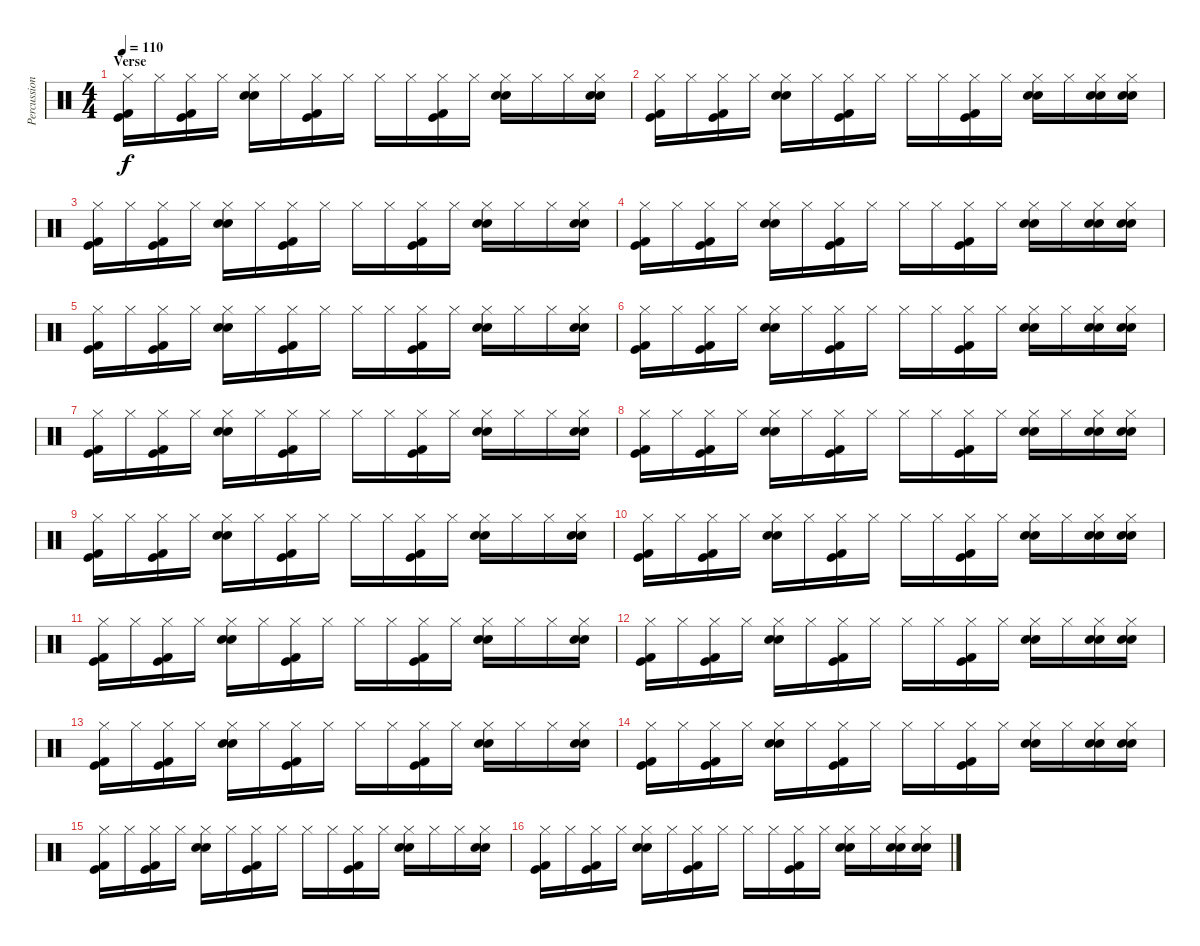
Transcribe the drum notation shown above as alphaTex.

\track ("Percussion" "Percussion") {instrument percussion}
\staff {score}
\articulation defaults
\ts (4 4)
\section ("" "Verse")
\tempo 110
\clef neutral
\ks c
("Hi-Hat (closed)" "Kick (hit) 2" "Kick (hit)").16{dy f} "Hi-Hat (closed)".16 ("Hi-Hat (closed)" "Kick (hit) 2" "Kick (hit)").16 "Hi-Hat (closed)".16 ("Hi-Hat (closed)" "Electric Snare (hit)" "Snare (hit) 2").16 "Hi-Hat (closed)".16 ("Hi-Hat (closed)" "Kick (hit) 2" "Kick (hit)").16 "Hi-Hat (closed)".16 "Hi-Hat (closed)".16 "Hi-Hat (closed)".16 ("Hi-Hat (closed)" "Kick (hit) 2" "Kick (hit)").16 "Hi-Hat (closed)".16 ("Hi-Hat (closed)" "Electric Snare (hit)" "Snare (hit) 2").16 "Hi-Hat (closed)".16 "Hi-Hat (closed)".16 ("Hi-Hat (closed)" "Electric Snare (hit)" "Snare (hit) 2").16 |
("Hi-Hat (closed)" "Kick (hit) 2" "Kick (hit)").16 "Hi-Hat (closed)".16 ("Hi-Hat (closed)" "Kick (hit) 2" "Kick (hit)").16 "Hi-Hat (closed)".16 ("Hi-Hat (closed)" "Electric Snare (hit)" "Snare (hit) 2").16 "Hi-Hat (closed)".16 ("Hi-Hat (closed)" "Kick (hit) 2" "Kick (hit)").16 "Hi-Hat (closed)".16 "Hi-Hat (closed)".16 "Hi-Hat (closed)".16 ("Hi-Hat (closed)" "Kick (hit) 2" "Kick (hit)").16 "Hi-Hat (closed)".16 ("Hi-Hat (closed)" "Electric Snare (hit)" "Snare (hit) 2").16 "Hi-Hat (closed)".16 ("Hi-Hat (closed)" "Electric Snare (hit)" "Snare (hit) 2").16 ("Hi-Hat (closed)" "Electric Snare (hit)" "Snare (hit) 2").16 |
("Hi-Hat (closed)" "Kick (hit) 2" "Kick (hit)").16 "Hi-Hat (closed)".16 ("Hi-Hat (closed)" "Kick (hit) 2" "Kick (hit)").16 "Hi-Hat (closed)".16 ("Hi-Hat (closed)" "Electric Snare (hit)" "Snare (hit) 2").16 "Hi-Hat (closed)".16 ("Hi-Hat (closed)" "Kick (hit) 2" "Kick (hit)").16 "Hi-Hat (closed)".16 "Hi-Hat (closed)".16 "Hi-Hat (closed)".16 ("Hi-Hat (closed)" "Kick (hit) 2" "Kick (hit)").16 "Hi-Hat (closed)".16 ("Hi-Hat (closed)" "Electric Snare (hit)" "Snare (hit) 2").16 "Hi-Hat (closed)".16 "Hi-Hat (closed)".16 ("Hi-Hat (closed)" "Electric Snare (hit)" "Snare (hit) 2").16 |
("Hi-Hat (closed)" "Kick (hit) 2" "Kick (hit)").16 "Hi-Hat (closed)".16 ("Hi-Hat (closed)" "Kick (hit) 2" "Kick (hit)").16 "Hi-Hat (closed)".16 ("Hi-Hat (closed)" "Electric Snare (hit)" "Snare (hit) 2").16 "Hi-Hat (closed)".16 ("Hi-Hat (closed)" "Kick (hit) 2" "Kick (hit)").16 "Hi-Hat (closed)".16 "Hi-Hat (closed)".16 "Hi-Hat (closed)".16 ("Hi-Hat (closed)" "Kick (hit) 2" "Kick (hit)").16 "Hi-Hat (closed)".16 ("Hi-Hat (closed)" "Electric Snare (hit)" "Snare (hit) 2").16 "Hi-Hat (closed)".16 ("Hi-Hat (closed)" "Electric Snare (hit)" "Snare (hit) 2").16 ("Hi-Hat (closed)" "Electric Snare (hit)" "Snare (hit) 2").16 |
("Hi-Hat (closed)" "Kick (hit) 2" "Kick (hit)").16 "Hi-Hat (closed)".16 ("Hi-Hat (closed)" "Kick (hit) 2" "Kick (hit)").16 "Hi-Hat (closed)".16 ("Hi-Hat (closed)" "Electric Snare (hit)" "Snare (hit) 2").16 "Hi-Hat (closed)".16 ("Hi-Hat (closed)" "Kick (hit) 2" "Kick (hit)").16 "Hi-Hat (closed)".16 "Hi-Hat (closed)".16 "Hi-Hat (closed)".16 ("Hi-Hat (closed)" "Kick (hit) 2" "Kick (hit)").16 "Hi-Hat (closed)".16 ("Hi-Hat (closed)" "Electric Snare (hit)" "Snare (hit) 2").16 "Hi-Hat (closed)".16 "Hi-Hat (closed)".16 ("Hi-Hat (closed)" "Electric Snare (hit)" "Snare (hit) 2").16 |
("Hi-Hat (closed)" "Kick (hit) 2" "Kick (hit)").16 "Hi-Hat (closed)".16 ("Hi-Hat (closed)" "Kick (hit) 2" "Kick (hit)").16 "Hi-Hat (closed)".16 ("Hi-Hat (closed)" "Electric Snare (hit)" "Snare (hit) 2").16 "Hi-Hat (closed)".16 ("Hi-Hat (closed)" "Kick (hit) 2" "Kick (hit)").16 "Hi-Hat (closed)".16 "Hi-Hat (closed)".16 "Hi-Hat (closed)".16 ("Hi-Hat (closed)" "Kick (hit) 2" "Kick (hit)").16 "Hi-Hat (closed)".16 ("Hi-Hat (closed)" "Electric Snare (hit)" "Snare (hit) 2").16 "Hi-Hat (closed)".16 ("Hi-Hat (closed)" "Electric Snare (hit)" "Snare (hit) 2").16 ("Hi-Hat (closed)" "Electric Snare (hit)" "Snare (hit) 2").16 |
("Hi-Hat (closed)" "Kick (hit) 2" "Kick (hit)").16 "Hi-Hat (closed)".16 ("Hi-Hat (closed)" "Kick (hit) 2" "Kick (hit)").16 "Hi-Hat (closed)".16 ("Hi-Hat (closed)" "Electric Snare (hit)" "Snare (hit) 2").16 "Hi-Hat (closed)".16 ("Hi-Hat (closed)" "Kick (hit) 2" "Kick (hit)").16 "Hi-Hat (closed)".16 "Hi-Hat (closed)".16 "Hi-Hat (closed)".16 ("Hi-Hat (closed)" "Kick (hit) 2" "Kick (hit)").16 "Hi-Hat (closed)".16 ("Hi-Hat (closed)" "Electric Snare (hit)" "Snare (hit) 2").16 "Hi-Hat (closed)".16 "Hi-Hat (closed)".16 ("Hi-Hat (closed)" "Electric Snare (hit)" "Snare (hit) 2").16 |
("Hi-Hat (closed)" "Kick (hit) 2" "Kick (hit)").16 "Hi-Hat (closed)".16 ("Hi-Hat (closed)" "Kick (hit) 2" "Kick (hit)").16 "Hi-Hat (closed)".16 ("Hi-Hat (closed)" "Electric Snare (hit)" "Snare (hit) 2").16 "Hi-Hat (closed)".16 ("Hi-Hat (closed)" "Kick (hit) 2" "Kick (hit)").16 "Hi-Hat (closed)".16 "Hi-Hat (closed)".16 "Hi-Hat (closed)".16 ("Hi-Hat (closed)" "Kick (hit) 2" "Kick (hit)").16 "Hi-Hat (closed)".16 ("Hi-Hat (closed)" "Electric Snare (hit)" "Snare (hit) 2").16 "Hi-Hat (closed)".16 ("Hi-Hat (closed)" "Electric Snare (hit)" "Snare (hit) 2").16 ("Hi-Hat (closed)" "Electric Snare (hit)" "Snare (hit) 2").16 |
("Hi-Hat (closed)" "Kick (hit) 2" "Kick (hit)").16 "Hi-Hat (closed)".16 ("Hi-Hat (closed)" "Kick (hit) 2" "Kick (hit)").16 "Hi-Hat (closed)".16 ("Hi-Hat (closed)" "Electric Snare (hit)" "Snare (hit) 2").16 "Hi-Hat (closed)".16 ("Hi-Hat (closed)" "Kick (hit) 2" "Kick (hit)").16 "Hi-Hat (closed)".16 "Hi-Hat (closed)".16 "Hi-Hat (closed)".16 ("Hi-Hat (closed)" "Kick (hit) 2" "Kick (hit)").16 "Hi-Hat (closed)".16 ("Hi-Hat (closed)" "Electric Snare (hit)" "Snare (hit) 2").16 "Hi-Hat (closed)".16 "Hi-Hat (closed)".16 ("Hi-Hat (closed)" "Electric Snare (hit)" "Snare (hit) 2").16 |
("Hi-Hat (closed)" "Kick (hit) 2" "Kick (hit)").16 "Hi-Hat (closed)".16 ("Hi-Hat (closed)" "Kick (hit) 2" "Kick (hit)").16 "Hi-Hat (closed)".16 ("Hi-Hat (closed)" "Electric Snare (hit)" "Snare (hit) 2").16 "Hi-Hat (closed)".16 ("Hi-Hat (closed)" "Kick (hit) 2" "Kick (hit)").16 "Hi-Hat (closed)".16 "Hi-Hat (closed)".16 "Hi-Hat (closed)".16 ("Hi-Hat (closed)" "Kick (hit) 2" "Kick (hit)").16 "Hi-Hat (closed)".16 ("Hi-Hat (closed)" "Electric Snare (hit)" "Snare (hit) 2").16 "Hi-Hat (closed)".16 ("Hi-Hat (closed)" "Electric Snare (hit)" "Snare (hit) 2").16 ("Hi-Hat (closed)" "Electric Snare (hit)" "Snare (hit) 2").16 |
("Hi-Hat (closed)" "Kick (hit) 2" "Kick (hit)").16 "Hi-Hat (closed)".16 ("Hi-Hat (closed)" "Kick (hit) 2" "Kick (hit)").16 "Hi-Hat (closed)".16 ("Hi-Hat (closed)" "Electric Snare (hit)" "Snare (hit) 2").16 "Hi-Hat (closed)".16 ("Hi-Hat (closed)" "Kick (hit) 2" "Kick (hit)").16 "Hi-Hat (closed)".16 "Hi-Hat (closed)".16 "Hi-Hat (closed)".16 ("Hi-Hat (closed)" "Kick (hit) 2" "Kick (hit)").16 "Hi-Hat (closed)".16 ("Hi-Hat (closed)" "Electric Snare (hit)" "Snare (hit) 2").16 "Hi-Hat (closed)".16 "Hi-Hat (closed)".16 ("Hi-Hat (closed)" "Electric Snare (hit)" "Snare (hit) 2").16 |
("Hi-Hat (closed)" "Kick (hit) 2" "Kick (hit)").16 "Hi-Hat (closed)".16 ("Hi-Hat (closed)" "Kick (hit) 2" "Kick (hit)").16 "Hi-Hat (closed)".16 ("Hi-Hat (closed)" "Electric Snare (hit)" "Snare (hit) 2").16 "Hi-Hat (closed)".16 ("Hi-Hat (closed)" "Kick (hit) 2" "Kick (hit)").16 "Hi-Hat (closed)".16 "Hi-Hat (closed)".16 "Hi-Hat (closed)".16 ("Hi-Hat (closed)" "Kick (hit) 2" "Kick (hit)").16 "Hi-Hat (closed)".16 ("Hi-Hat (closed)" "Electric Snare (hit)" "Snare (hit) 2").16 "Hi-Hat (closed)".16 ("Hi-Hat (closed)" "Electric Snare (hit)" "Snare (hit) 2").16 ("Hi-Hat (closed)" "Electric Snare (hit)" "Snare (hit) 2").16 |
("Hi-Hat (closed)" "Kick (hit) 2" "Kick (hit)").16 "Hi-Hat (closed)".16 ("Hi-Hat (closed)" "Kick (hit) 2" "Kick (hit)").16 "Hi-Hat (closed)".16 ("Hi-Hat (closed)" "Electric Snare (hit)" "Snare (hit) 2").16 "Hi-Hat (closed)".16 ("Hi-Hat (closed)" "Kick (hit) 2" "Kick (hit)").16 "Hi-Hat (closed)".16 "Hi-Hat (closed)".16 "Hi-Hat (closed)".16 ("Hi-Hat (closed)" "Kick (hit) 2" "Kick (hit)").16 "Hi-Hat (closed)".16 ("Hi-Hat (closed)" "Electric Snare (hit)" "Snare (hit) 2").16 "Hi-Hat (closed)".16 "Hi-Hat (closed)".16 ("Hi-Hat (closed)" "Electric Snare (hit)" "Snare (hit) 2").16 |
("Hi-Hat (closed)" "Kick (hit) 2" "Kick (hit)").16 "Hi-Hat (closed)".16 ("Hi-Hat (closed)" "Kick (hit) 2" "Kick (hit)").16 "Hi-Hat (closed)".16 ("Hi-Hat (closed)" "Electric Snare (hit)" "Snare (hit) 2").16 "Hi-Hat (closed)".16 ("Hi-Hat (closed)" "Kick (hit) 2" "Kick (hit)").16 "Hi-Hat (closed)".16 "Hi-Hat (closed)".16 "Hi-Hat (closed)".16 ("Hi-Hat (closed)" "Kick (hit) 2" "Kick (hit)").16 "Hi-Hat (closed)".16 ("Hi-Hat (closed)" "Electric Snare (hit)" "Snare (hit) 2").16 "Hi-Hat (closed)".16 ("Hi-Hat (closed)" "Electric Snare (hit)" "Snare (hit) 2").16 ("Hi-Hat (closed)" "Electric Snare (hit)" "Snare (hit) 2").16 |
("Hi-Hat (closed)" "Kick (hit) 2" "Kick (hit)").16 "Hi-Hat (closed)".16 ("Hi-Hat (closed)" "Kick (hit) 2" "Kick (hit)").16 "Hi-Hat (closed)".16 ("Hi-Hat (closed)" "Electric Snare (hit)" "Snare (hit) 2").16 "Hi-Hat (closed)".16 ("Hi-Hat (closed)" "Kick (hit) 2" "Kick (hit)").16 "Hi-Hat (closed)".16 "Hi-Hat (closed)".16 "Hi-Hat (closed)".16 ("Hi-Hat (closed)" "Kick (hit) 2" "Kick (hit)").16 "Hi-Hat (closed)".16 ("Hi-Hat (closed)" "Electric Snare (hit)" "Snare (hit) 2").16 "Hi-Hat (closed)".16 "Hi-Hat (closed)".16 ("Hi-Hat (closed)" "Electric Snare (hit)" "Snare (hit) 2").16 |
("Hi-Hat (closed)" "Kick (hit) 2" "Kick (hit)").16 "Hi-Hat (closed)".16 ("Hi-Hat (closed)" "Kick (hit) 2" "Kick (hit)").16 "Hi-Hat (closed)".16 ("Hi-Hat (closed)" "Electric Snare (hit)" "Snare (hit) 2").16 "Hi-Hat (closed)".16 ("Hi-Hat (closed)" "Kick (hit) 2" "Kick (hit)").16 "Hi-Hat (closed)".16 "Hi-Hat (closed)".16 "Hi-Hat (closed)".16 ("Hi-Hat (closed)" "Kick (hit) 2" "Kick (hit)").16 "Hi-Hat (closed)".16 ("Hi-Hat (closed)" "Electric Snare (hit)" "Snare (hit) 2").16 "Hi-Hat (closed)".16 ("Hi-Hat (closed)" "Electric Snare (hit)" "Snare (hit) 2").16 ("Hi-Hat (closed)" "Electric Snare (hit)" "Snare (hit) 2").16
